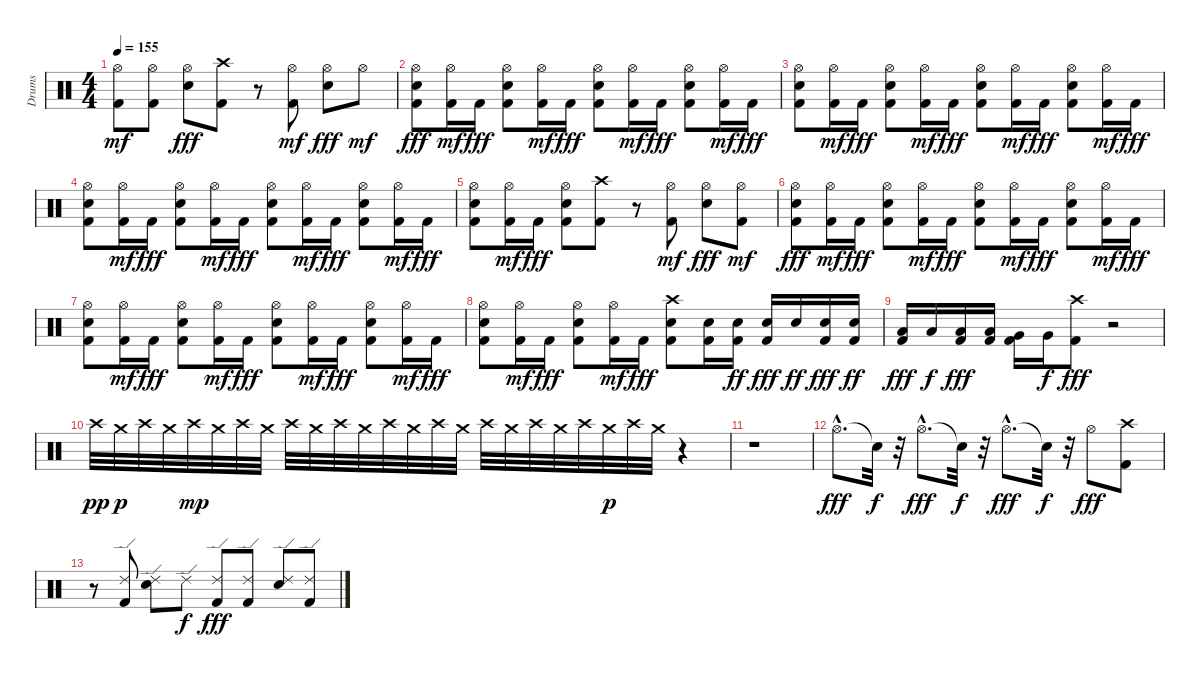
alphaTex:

\track ("Drums" "Drums") {instrument percussion}
\staff {score}
\articulation defaults
\ts (4 4)
\tempo 155
\clef neutral
\ks c
("Kick (hit) 2" "Hi-Hat (open)").8{dy mf} ("Kick (hit) 2" "Hi-Hat (open)").8 ("Snare (hit) 2" "Hi-Hat (open)").8{dy fff} ("Crash high (hit)" "Kick (hit) 2").8 r.8 ("Kick (hit) 2" "Hi-Hat (open)").8{dy mf} ("Snare (hit) 2" "Hi-Hat (open)").8{dy fff} "Hi-Hat (open)".8{dy mf} |
("Snare (hit) 2" "Hi-Hat (open)" "Kick (hit) 2").8{dy fff} ("Kick (hit) 2" "Hi-Hat (open)").16{dy mf} "Kick (hit) 2".16{dy fff} ("Snare (hit) 2" "Hi-Hat (open)" "Kick (hit) 2").8 ("Kick (hit) 2" "Hi-Hat (open)").16{dy mf} "Kick (hit) 2".16{dy fff} ("Snare (hit) 2" "Hi-Hat (open)" "Kick (hit) 2").8 ("Kick (hit) 2" "Hi-Hat (open)").16{dy mf} "Kick (hit) 2".16{dy fff} ("Snare (hit) 2" "Hi-Hat (open)" "Kick (hit) 2").8 ("Kick (hit) 2" "Hi-Hat (open)").16{dy mf} "Kick (hit) 2".16{dy fff} |
("Snare (hit) 2" "Hi-Hat (open)" "Kick (hit) 2").8 ("Kick (hit) 2" "Hi-Hat (open)").16{dy mf} "Kick (hit) 2".16{dy fff} ("Snare (hit) 2" "Hi-Hat (open)" "Kick (hit) 2").8 ("Kick (hit) 2" "Hi-Hat (open)").16{dy mf} "Kick (hit) 2".16{dy fff} ("Snare (hit) 2" "Hi-Hat (open)" "Kick (hit) 2").8 ("Kick (hit) 2" "Hi-Hat (open)").16{dy mf} "Kick (hit) 2".16{dy fff} ("Snare (hit) 2" "Hi-Hat (open)" "Kick (hit) 2").8 ("Kick (hit) 2" "Hi-Hat (open)").16{dy mf} "Kick (hit) 2".16{dy fff} |
("Snare (hit) 2" "Hi-Hat (open)" "Kick (hit) 2").8 ("Kick (hit) 2" "Hi-Hat (open)").16{dy mf} "Kick (hit) 2".16{dy fff} ("Snare (hit) 2" "Hi-Hat (open)" "Kick (hit) 2").8 ("Kick (hit) 2" "Hi-Hat (open)").16{dy mf} "Kick (hit) 2".16{dy fff} ("Snare (hit) 2" "Hi-Hat (open)" "Kick (hit) 2").8 ("Kick (hit) 2" "Hi-Hat (open)").16{dy mf} "Kick (hit) 2".16{dy fff} ("Snare (hit) 2" "Hi-Hat (open)" "Kick (hit) 2").8 ("Kick (hit) 2" "Hi-Hat (open)").16{dy mf} "Kick (hit) 2".16{dy fff} |
("Snare (hit) 2" "Hi-Hat (open)" "Kick (hit) 2").8 ("Kick (hit) 2" "Hi-Hat (open)").16{dy mf} "Kick (hit) 2".16{dy fff} ("Snare (hit) 2" "Hi-Hat (open)" "Kick (hit) 2").8 ("Kick (hit) 2" "Crash high (hit)").8 r.8 ("Kick (hit) 2" "Hi-Hat (open)").8{dy mf} ("Snare (hit) 2" "Hi-Hat (open)").8{dy fff} ("Kick (hit) 2" "Hi-Hat (open)").8{dy mf} |
("Snare (hit) 2" "Hi-Hat (open)" "Kick (hit) 2").8{dy fff} ("Kick (hit) 2" "Hi-Hat (open)").16{dy mf} "Kick (hit) 2".16{dy fff} ("Snare (hit) 2" "Hi-Hat (open)" "Kick (hit) 2").8 ("Kick (hit) 2" "Hi-Hat (open)").16{dy mf} "Kick (hit) 2".16{dy fff} ("Snare (hit) 2" "Hi-Hat (open)" "Kick (hit) 2").8 ("Kick (hit) 2" "Hi-Hat (open)").16{dy mf} "Kick (hit) 2".16{dy fff} ("Snare (hit) 2" "Hi-Hat (open)" "Kick (hit) 2").8 ("Kick (hit) 2" "Hi-Hat (open)").16{dy mf} "Kick (hit) 2".16{dy fff} |
("Snare (hit) 2" "Hi-Hat (open)" "Kick (hit) 2").8 ("Kick (hit) 2" "Hi-Hat (open)").16{dy mf} "Kick (hit) 2".16{dy fff} ("Snare (hit) 2" "Hi-Hat (open)" "Kick (hit) 2").8 ("Kick (hit) 2" "Hi-Hat (open)").16{dy mf} "Kick (hit) 2".16{dy fff} ("Snare (hit) 2" "Hi-Hat (open)" "Kick (hit) 2").8 ("Kick (hit) 2" "Hi-Hat (open)").16{dy mf} "Kick (hit) 2".16{dy fff} ("Snare (hit) 2" "Hi-Hat (open)" "Kick (hit) 2").8 ("Kick (hit) 2" "Hi-Hat (open)").16{dy mf} "Kick (hit) 2".16{dy fff} |
("Snare (hit) 2" "Hi-Hat (open)" "Kick (hit) 2").8 ("Kick (hit) 2" "Hi-Hat (open)").16{dy mf} "Kick (hit) 2".16{dy fff} ("Snare (hit) 2" "Hi-Hat (open)" "Kick (hit) 2").8 ("Kick (hit) 2" "Hi-Hat (open)").16{dy mf} "Kick (hit) 2".16{dy fff} ("Crash high (hit)" "Kick (hit) 2" "Snare (hit) 2").8 ("Kick (hit) 2" "Snare (hit) 2").16 ("Kick (hit) 2" "Snare (hit) 2").16{dy ff} ("Snare (hit) 2" "Kick (hit) 2").16{dy fff} "Snare (hit) 2".16{dy ff} ("Snare (hit) 2" "Kick (hit) 2").16{dy fff} ("Kick (hit) 2" "Snare (hit) 2").16{dy ff} |
("Low Tom (hit)" "Kick (hit) 2").16{dy fff} "Low Tom (hit)".16{dy f} ("Low Tom (hit)" "Kick (hit) 2").16{dy fff} ("Low Tom (hit)" "Kick (hit) 2").16 ("Very Low Tom (hit)" "Kick (hit) 2").16 "Very Low Tom (hit)".16{dy f} ("Kick (hit) 2" "Crash high (hit)").8{dy fff} r.2 |
"Crash high (hit)".32{dy pp} "Crash medium (hit)".32{dy p} "Crash high (hit)".32 "Crash medium (hit)".32 "Crash high (hit)".32{dy mp} "Crash medium (hit)".32 "Crash high (hit)".32 "Crash medium (hit)".32 "Crash high (hit)".32 "Crash medium (hit)".32 "Crash high (hit)".32 "Crash medium (hit)".32 "Crash high (hit)".32 "Crash medium (hit)".32 "Crash high (hit)".32 "Crash medium (hit)".32 "Crash high (hit)".32 "Crash medium (hit)".32 "Crash high (hit)".32 "Crash medium (hit)".32 "Crash high (hit)".32 "Crash medium (hit)".32{dy p} "Crash high (hit)".32 "Crash medium (hit)".32 r.4 |
r.1 |
"Hi-Hat (open)"{hac}.8{d dy fff} "Snare (hit)"{t}.32{dy f} r.32 "Hi-Hat (open)"{hac}.8{d dy fff} "Snare (hit)"{t}.32{dy f} r.32 "Hi-Hat (open)"{hac}.8{d dy fff} "Snare (hit)"{t}.32{dy f} r.32 "Hi-Hat (open)".8{dy fff} ("Crash high (hit)" "Kick (hit) 2").8 |
r.8 ("Kick (hit) 2" "Ride (edge) 2").8 ("Snare (hit) 2" "Ride (edge) 2").8 "Ride (edge) 2".8{dy f} ("Kick (hit) 2" "Ride (edge) 2").8{dy fff} ("Kick (hit) 2" "Ride (edge) 2").8 ("Snare (hit) 2" "Ride (edge) 2").8 ("Kick (hit) 2" "Ride (edge) 2").8
